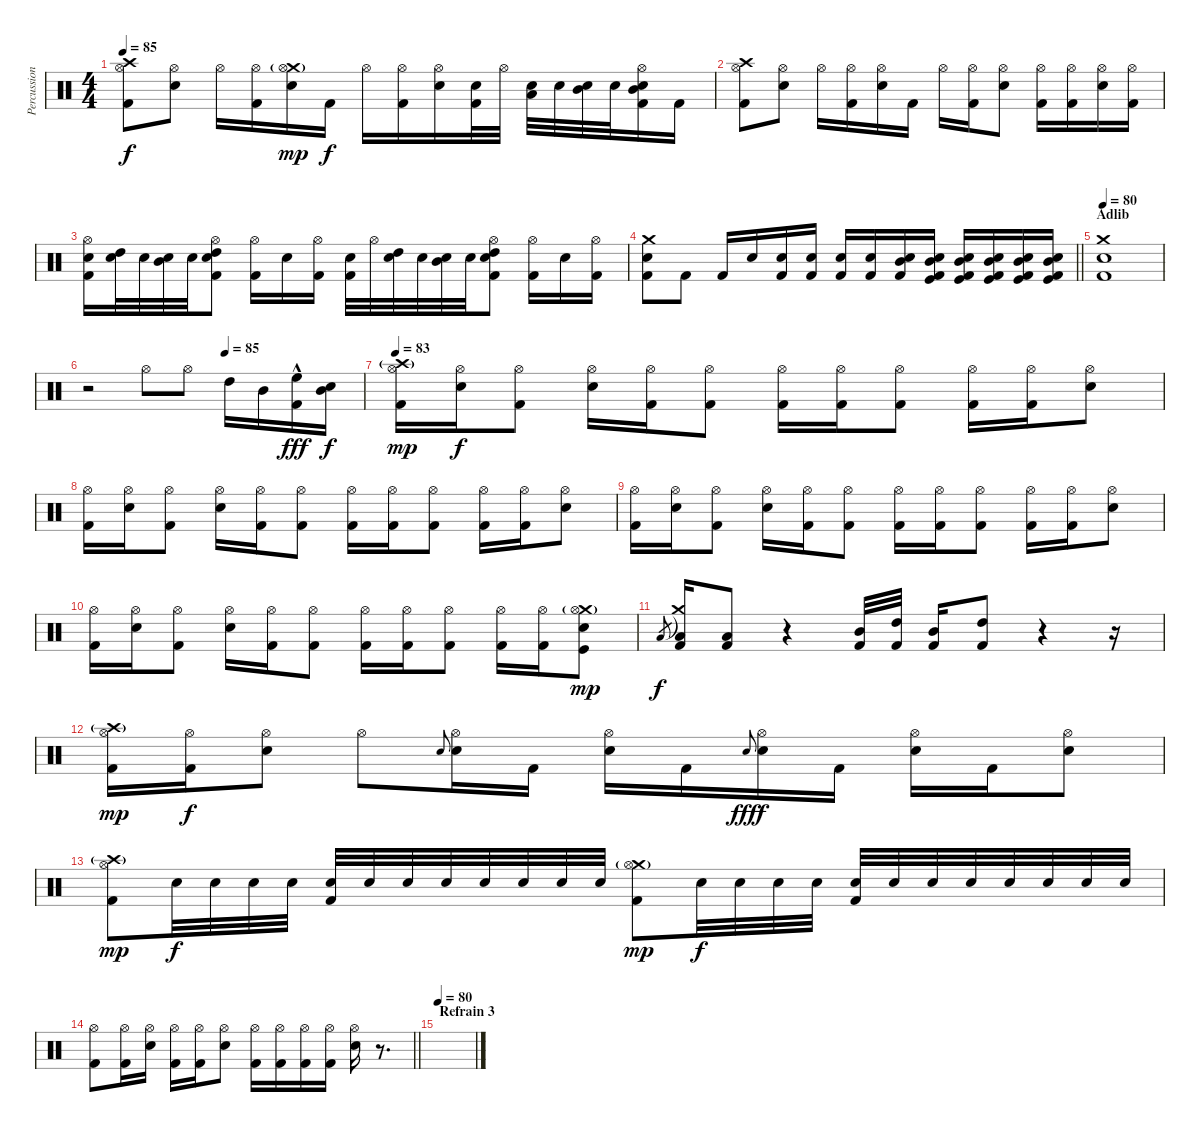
\track ("Percussion" "Percussion") {instrument percussion}
\staff {score}
\articulation defaults
\ts (4 4)
\tempo 85
\clef neutral
\ks c
("Crash high (hit)" "Hi-Hat (open)" "Kick (hit) 2").8{dy f} ("Hi-Hat (open)" "Snare (hit) 2").8 "Hi-Hat (open)".16 ("Hi-Hat (open)" "Kick (hit) 2").16 ("Crash medium (hit)"{g} "Hi-Hat (open)" "Snare (hit) 2").16{dy mp} "Kick (hit) 2".16{dy f} "Hi-Hat (open)".16 ("Hi-Hat (open)" "Kick (hit) 2").16 ("Hi-Hat (open)" "Snare (hit) 2").16 ("Snare (hit) 2" "Kick (hit) 2").32 "Hi-Hat (open)".32 ("Low Tom (hit)" "Snare (hit) 2").32 "Snare (hit) 2".32 ("Mid Tom (hit)" "Snare (hit) 2").32 "Snare (hit) 2".32 ("Hi-Hat (open)" "Mid Tom (hit)" "Snare (hit) 2" "Kick (hit) 2").16 "Kick (hit) 2".16 |
("Crash high (hit)" "Hi-Hat (open)" "Kick (hit) 2").8 ("Hi-Hat (open)" "Snare (hit) 2").8 "Hi-Hat (open)".16 ("Hi-Hat (open)" "Kick (hit) 2").16 ("Hi-Hat (open)" "Snare (hit) 2").16 "Kick (hit) 2".16 "Hi-Hat (open)".16 ("Hi-Hat (open)" "Kick (hit) 2").16 ("Hi-Hat (open)" "Snare (hit) 2").8 ("Hi-Hat (open)" "Kick (hit) 2").16 ("Hi-Hat (open)" "Kick (hit) 2").16 ("Hi-Hat (open)" "Snare (hit) 2").16 ("Hi-Hat (open)" "Kick (hit) 2").16 |
("Hi-Hat (open)" "Snare (hit) 2" "Kick (hit) 2").16 ("High Tom (hit)" "Snare (hit) 2").32 "Snare (hit) 2".32 ("Mid Tom (hit)" "Snare (hit) 2").32 "Snare (hit) 2".32 ("Hi-Hat (open)" "High Tom (hit)" "Snare (hit) 2" "Kick (hit) 2").8 ("Hi-Hat (open)" "Kick (hit) 2").16 "Snare (hit) 2".16 ("Hi-Hat (open)" "Kick (hit) 2").16 ("Snare (hit) 2" "Kick (hit) 2").32 "Hi-Hat (open)".32 ("High Tom (hit)" "Snare (hit) 2").32 "Snare (hit) 2".32 ("Mid Tom (hit)" "Snare (hit) 2").32 "Snare (hit) 2".32 ("Hi-Hat (open)" "High Tom (hit)" "Snare (hit) 2" "Kick (hit) 2").8 ("Hi-Hat (open)" "Kick (hit) 2").16 "Snare (hit) 2".16 ("Hi-Hat (open)" "Kick (hit) 2").16 |
\barLineRight lightlight
("Crash medium (hit)" "Snare (hit) 2" "Kick (hit) 2").8 "Kick (hit) 2".8 "Kick (hit) 2".16 "Snare (hit) 2".16 ("Snare (hit) 2" "Kick (hit) 2").16 ("Snare (hit) 2" "Kick (hit) 2").16 ("Snare (hit) 2" "Kick (hit) 2").16 ("Snare (hit) 2" "Kick (hit) 2").16 ("Mid Tom (hit)" "Snare (hit) 2" "Kick (hit) 2").16 ("Kick (hit)" "Mid Tom (hit)" "Snare (hit) 2" "Kick (hit) 2").16 ("Kick (hit)" "Mid Tom (hit)" "Snare (hit) 2" "Kick (hit) 2").16 ("Kick (hit)" "Mid Tom (hit)" "Snare (hit) 2" "Kick (hit) 2").16 ("Kick (hit)" "Mid Tom (hit)" "Snare (hit) 2" "Kick (hit) 2").16 ("Kick (hit)" "Mid Tom (hit)" "Snare (hit) 2" "Kick (hit) 2").16 |
\section ("" "Adlib")
\tempo 80
("Crash medium (hit)" "Snare (hit) 2" "Kick (hit) 2").1 |
\tempo (85 0.5)
r.2 "Hi-Hat (open)".8 "Hi-Hat (open)".8 "High Tom (hit)".16 "Mid Tom (hit)".16 ("High Floor Tom (hit)" "Kick (hit) 2"{hac}).16{dy fff} ("Mid Tom (hit)" "Snare (hit) 2").16{dy f} |
\tempo 83
("Crash high (hit)"{g} "Hi-Hat (open)" "Kick (hit) 2").16{dy mp} ("Hi-Hat (open)" "Snare (hit) 2").16{dy f} ("Hi-Hat (open)" "Kick (hit) 2").8 ("Hi-Hat (open)" "Snare (hit) 2").16 ("Hi-Hat (open)" "Kick (hit) 2").16 ("Hi-Hat (open)" "Kick (hit) 2").8 ("Hi-Hat (open)" "Kick (hit) 2").16 ("Hi-Hat (open)" "Kick (hit) 2").16 ("Hi-Hat (open)" "Kick (hit) 2").8 ("Hi-Hat (open)" "Kick (hit) 2").16 ("Hi-Hat (open)" "Kick (hit) 2").16 ("Hi-Hat (open)" "Snare (hit) 2").8 |
("Hi-Hat (open)" "Kick (hit) 2").16 ("Hi-Hat (open)" "Snare (hit) 2").16 ("Hi-Hat (open)" "Kick (hit) 2").8 ("Hi-Hat (open)" "Snare (hit) 2").16 ("Hi-Hat (open)" "Kick (hit) 2").16 ("Hi-Hat (open)" "Kick (hit) 2").8 ("Hi-Hat (open)" "Kick (hit) 2").16 ("Hi-Hat (open)" "Kick (hit) 2").16 ("Hi-Hat (open)" "Kick (hit) 2").8 ("Hi-Hat (open)" "Kick (hit) 2").16 ("Hi-Hat (open)" "Kick (hit) 2").16 ("Hi-Hat (open)" "Snare (hit) 2").8 |
("Hi-Hat (open)" "Kick (hit) 2").16 ("Hi-Hat (open)" "Snare (hit) 2").16 ("Hi-Hat (open)" "Kick (hit) 2").8 ("Hi-Hat (open)" "Snare (hit) 2").16 ("Hi-Hat (open)" "Kick (hit) 2").16 ("Hi-Hat (open)" "Kick (hit) 2").8 ("Hi-Hat (open)" "Kick (hit) 2").16 ("Hi-Hat (open)" "Kick (hit) 2").16 ("Hi-Hat (open)" "Kick (hit) 2").8 ("Hi-Hat (open)" "Kick (hit) 2").16 ("Hi-Hat (open)" "Kick (hit) 2").16 ("Hi-Hat (open)" "Snare (hit) 2").8 |
("Hi-Hat (open)" "Kick (hit) 2").16 ("Hi-Hat (open)" "Snare (hit) 2").16 ("Hi-Hat (open)" "Kick (hit) 2").8 ("Hi-Hat (open)" "Snare (hit) 2").16 ("Hi-Hat (open)" "Kick (hit) 2").16 ("Hi-Hat (open)" "Kick (hit) 2").8 ("Hi-Hat (open)" "Kick (hit) 2").16 ("Hi-Hat (open)" "Kick (hit) 2").16 ("Hi-Hat (open)" "Kick (hit) 2").8 ("Hi-Hat (open)" "Kick (hit) 2").16 ("Hi-Hat (open)" "Kick (hit) 2").16 ("Crash medium (hit)"{g} "Hi-Hat (open)" "Snare (hit) 2" "Kick (hit)").8{dy mp} |
"Low Tom (hit)".8{gr dy f} ("Crash medium (hit)"{t} "Low Tom (hit)" "Kick (hit) 2").16 ("Low Tom (hit)" "Kick (hit) 2").8 r.4 ("Mid Tom (hit)" "Kick (hit) 2").32 ("High Tom (hit)" "Kick (hit) 2").32 ("Mid Tom (hit)" "Kick (hit) 2").16 ("High Tom (hit)" "Kick (hit) 2").8 r.4 r.16 |
("Crash high (hit)"{g} "Hi-Hat (open)" "Kick (hit) 2").16{dy mp} ("Hi-Hat (open)" "Kick (hit) 2").16{dy f} ("Hi-Hat (open)" "Snare (hit) 2").8 "Hi-Hat (open)".8 "Snare (hit) 2".8{gr onbeat} ("Hi-Hat (open)" "Snare (hit) 2").16 "Kick (hit) 2".16 ("Hi-Hat (open)" "Snare (hit) 2").16 "Kick (hit) 2".16 "Snare (hit) 2".8{gr onbeat dy fff} ("Hi-Hat (open)" "Snare (hit) 2").16{dy f} "Kick (hit) 2".16 ("Hi-Hat (open)" "Snare (hit) 2").16 "Kick (hit) 2".16 ("Hi-Hat (open)" "Snare (hit) 2").8 |
("Crash high (hit)"{g} "Hi-Hat (open)" "Kick (hit) 2").8{dy mp} "Snare (hit) 2".32{dy f} "Snare (hit) 2".32 "Snare (hit) 2".32 "Snare (hit) 2".32 ("Snare (hit) 2" "Kick (hit) 2").32 "Snare (hit) 2".32 "Snare (hit) 2".32 "Snare (hit) 2".32 "Snare (hit) 2".32 "Snare (hit) 2".32 "Snare (hit) 2".32 "Snare (hit) 2".32 ("Crash medium (hit)"{g} "Hi-Hat (open)" "Kick (hit) 2").8{dy mp} "Snare (hit) 2".32{dy f} "Snare (hit) 2".32 "Snare (hit) 2".32 "Snare (hit) 2".32 ("Snare (hit) 2" "Kick (hit) 2").32 "Snare (hit) 2".32 "Snare (hit) 2".32 "Snare (hit) 2".32 "Snare (hit) 2".32 "Snare (hit) 2".32 "Snare (hit) 2".32 "Snare (hit) 2".32 |
\barLineRight lightlight
("Hi-Hat (open)" "Kick (hit) 2").8 ("Hi-Hat (open)" "Kick (hit) 2").16 ("Hi-Hat (open)" "Snare (hit) 2").16 ("Hi-Hat (open)" "Kick (hit) 2").16 ("Hi-Hat (open)" "Kick (hit) 2").16 ("Hi-Hat (open)" "Snare (hit) 2").8 ("Hi-Hat (open)" "Kick (hit) 2").16 ("Hi-Hat (open)" "Kick (hit) 2").16 ("Hi-Hat (open)" "Kick (hit) 2").16 ("Hi-Hat (open)" "Kick (hit) 2").16 ("Hi-Hat (open)" "Snare (hit) 2").16 r.8{d} |
\section ("" "Refrain 3")
\tempo 80
